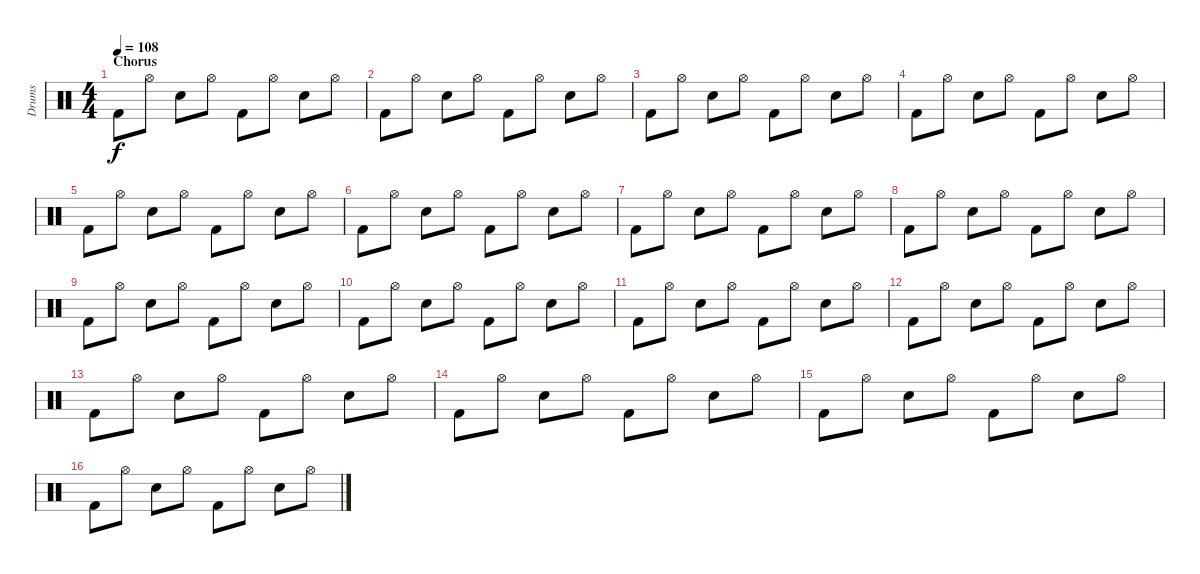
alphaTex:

\track ("Drums" "Drums") {instrument percussion}
\staff {score}
\articulation defaults
\ts (4 4)
\section ("" "Chorus")
\tempo 108
\clef neutral
\ks c "Kick (hit) 2".8{dy f} "Hi-Hat (open)".8 "Snare (hit) 2".8 "Hi-Hat (open)".8 "Kick (hit) 2".8 "Hi-Hat (open)".8 "Snare (hit) 2".8 "Hi-Hat (open)".8
|
"Kick (hit) 2".8 "Hi-Hat (open)".8 "Snare (hit) 2".8 "Hi-Hat (open)".8 "Kick (hit) 2".8 "Hi-Hat (open)".8 "Snare (hit) 2".8 "Hi-Hat (open)".8 |
"Kick (hit) 2".8 "Hi-Hat (open)".8 "Snare (hit) 2".8 "Hi-Hat (open)".8 "Kick (hit) 2".8 "Hi-Hat (open)".8 "Snare (hit) 2".8 "Hi-Hat (open)".8 |
"Kick (hit) 2".8 "Hi-Hat (open)".8 "Snare (hit) 2".8 "Hi-Hat (open)".8 "Kick (hit) 2".8 "Hi-Hat (open)".8 "Snare (hit) 2".8 "Hi-Hat (open)".8 |
"Kick (hit) 2".8 "Hi-Hat (open)".8 "Snare (hit) 2".8 "Hi-Hat (open)".8 "Kick (hit) 2".8 "Hi-Hat (open)".8 "Snare (hit) 2".8 "Hi-Hat (open)".8 |
"Kick (hit) 2".8 "Hi-Hat (open)".8 "Snare (hit) 2".8 "Hi-Hat (open)".8 "Kick (hit) 2".8 "Hi-Hat (open)".8 "Snare (hit) 2".8 "Hi-Hat (open)".8 |
"Kick (hit) 2".8 "Hi-Hat (open)".8 "Snare (hit) 2".8 "Hi-Hat (open)".8 "Kick (hit) 2".8 "Hi-Hat (open)".8 "Snare (hit) 2".8 "Hi-Hat (open)".8 |
"Kick (hit) 2".8 "Hi-Hat (open)".8 "Snare (hit) 2".8 "Hi-Hat (open)".8 "Kick (hit) 2".8 "Hi-Hat (open)".8 "Snare (hit) 2".8 "Hi-Hat (open)".8 |
"Kick (hit) 2".8 "Hi-Hat (open)".8 "Snare (hit) 2".8 "Hi-Hat (open)".8 "Kick (hit) 2".8 "Hi-Hat (open)".8 "Snare (hit) 2".8 "Hi-Hat (open)".8 |
"Kick (hit) 2".8 "Hi-Hat (open)".8 "Snare (hit) 2".8 "Hi-Hat (open)".8 "Kick (hit) 2".8 "Hi-Hat (open)".8 "Snare (hit) 2".8 "Hi-Hat (open)".8 |
"Kick (hit) 2".8 "Hi-Hat (open)".8 "Snare (hit) 2".8 "Hi-Hat (open)".8 "Kick (hit) 2".8 "Hi-Hat (open)".8 "Snare (hit) 2".8 "Hi-Hat (open)".8 |
"Kick (hit) 2".8 "Hi-Hat (open)".8 "Snare (hit) 2".8 "Hi-Hat (open)".8 "Kick (hit) 2".8 "Hi-Hat (open)".8 "Snare (hit) 2".8 "Hi-Hat (open)".8 |
"Kick (hit) 2".8 "Hi-Hat (open)".8 "Snare (hit) 2".8 "Hi-Hat (open)".8 "Kick (hit) 2".8 "Hi-Hat (open)".8 "Snare (hit) 2".8 "Hi-Hat (open)".8 |
"Kick (hit) 2".8 "Hi-Hat (open)".8 "Snare (hit) 2".8 "Hi-Hat (open)".8 "Kick (hit) 2".8 "Hi-Hat (open)".8 "Snare (hit) 2".8 "Hi-Hat (open)".8 |
"Kick (hit) 2".8 "Hi-Hat (open)".8 "Snare (hit) 2".8 "Hi-Hat (open)".8 "Kick (hit) 2".8 "Hi-Hat (open)".8 "Snare (hit) 2".8 "Hi-Hat (open)".8 |
"Kick (hit) 2".8 "Hi-Hat (open)".8 "Snare (hit) 2".8 "Hi-Hat (open)".8 "Kick (hit) 2".8 "Hi-Hat (open)".8 "Snare (hit) 2".8 "Hi-Hat (open)".8
